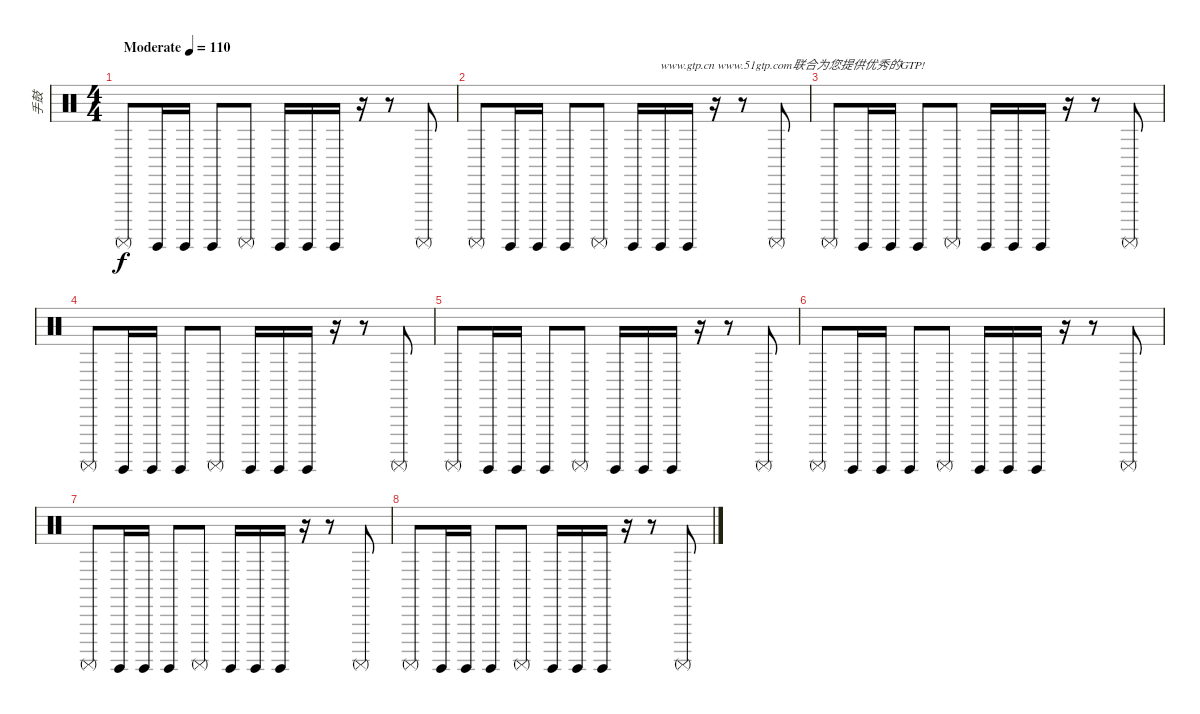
\track ("手鼓" "手鼓") {instrument percussion}
\staff {score}
\articulation defaults
\ts (4 4)
\tempo (110 "Moderate")
\clef neutral
\ks c "Surdo (mute)".8{dy f} "Surdo (hit)".16 "Surdo (hit)".16 "Surdo (hit)".8 "Surdo (mute)".8 "Surdo (hit)".16 "Surdo (hit)".16 "Surdo (hit)".16
r.16 r.8 "Surdo (mute)".8 |
"Surdo (mute)".8 "Surdo (hit)".16 "Surdo (hit)".16 "Surdo (hit)".8 "Surdo (mute)".8 "Surdo (hit)".16 "Surdo (hit)".16{txt "www.gtp.cn www.51gtp.com联合为您提供优秀的GTP!"} "Surdo (hit)".16 r.16 r.8 "Surdo (mute)".8 |
"Surdo (mute)".8 "Surdo (hit)".16 "Surdo (hit)".16 "Surdo (hit)".8 "Surdo (mute)".8 "Surdo (hit)".16 "Surdo (hit)".16 "Surdo (hit)".16 r.16 r.8 "Surdo (mute)".8 |
"Surdo (mute)".8 "Surdo (hit)".16 "Surdo (hit)".16 "Surdo (hit)".8 "Surdo (mute)".8 "Surdo (hit)".16 "Surdo (hit)".16 "Surdo (hit)".16 r.16 r.8 "Surdo (mute)".8 |
"Surdo (mute)".8 "Surdo (hit)".16 "Surdo (hit)".16 "Surdo (hit)".8 "Surdo (mute)".8 "Surdo (hit)".16 "Surdo (hit)".16 "Surdo (hit)".16 r.16 r.8 "Surdo (mute)".8 |
"Surdo (mute)".8 "Surdo (hit)".16 "Surdo (hit)".16 "Surdo (hit)".8 "Surdo (mute)".8 "Surdo (hit)".16 "Surdo (hit)".16 "Surdo (hit)".16 r.16 r.8 "Surdo (mute)".8 |
"Surdo (mute)".8 "Surdo (hit)".16 "Surdo (hit)".16 "Surdo (hit)".8 "Surdo (mute)".8 "Surdo (hit)".16 "Surdo (hit)".16 "Surdo (hit)".16 r.16 r.8 "Surdo (mute)".8 |
"Surdo (mute)".8 "Surdo (hit)".16 "Surdo (hit)".16 "Surdo (hit)".8 "Surdo (mute)".8 "Surdo (hit)".16 "Surdo (hit)".16 "Surdo (hit)".16 r.16 r.8 "Surdo (mute)".8
